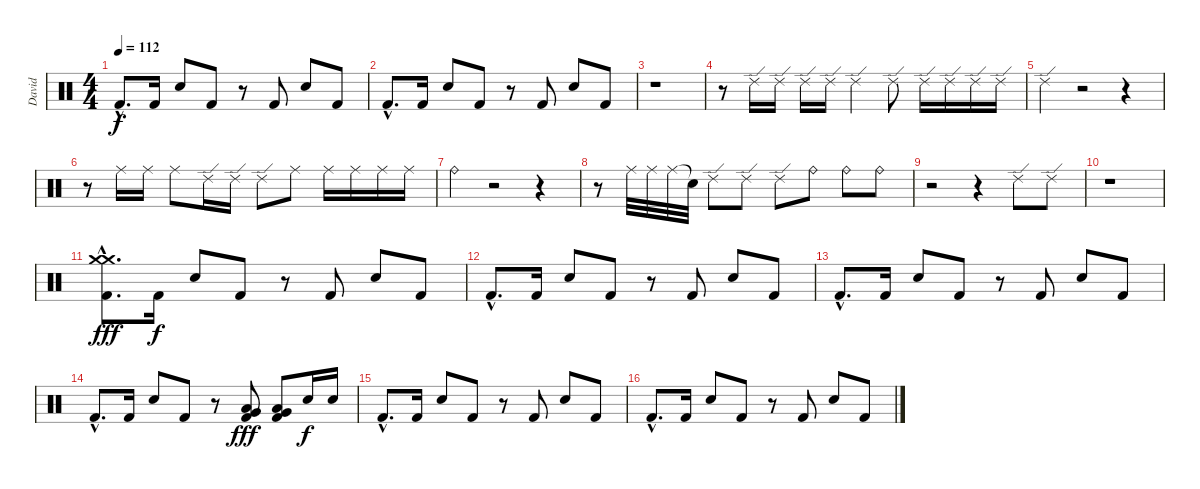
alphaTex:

\track ("David" "David") {instrument percussion}
\staff {score}
\articulation defaults
\ts (4 4)
\tempo 112
\clef neutral
\ks c "Kick (hit) 2"{hac}.8{d dy f} "Kick (hit) 2".16 "Snare (hit) 2".8 "Kick (hit) 2".8
r.8 "Kick (hit) 2".8 "Snare (hit) 2".8 "Kick (hit) 2".8 |
"Kick (hit) 2"{hac}.8{d} "Kick (hit) 2".16 "Snare (hit) 2".8 "Kick (hit) 2".8 r.8 "Kick (hit) 2".8 "Snare (hit) 2".8 "Kick (hit) 2".8 |
r.1 |
r.8 "Ride (edge) 2".16 "Ride (edge) 2".16 "Ride (edge) 2".16 "Ride (edge) 2".16 "Ride (edge) 2".4 "Ride (edge) 2".8 "Ride (edge) 2".16 "Ride (edge) 2".16 "Ride (edge) 2".16 "Ride (edge) 2".16 |
"Ride (edge) 2".4 r.2 r.4 |
r.8 "Ride (middle)".16 "Ride (middle)".16 "Ride (middle)".8 "Ride (edge) 2".16 "Ride (edge) 2".16 "Ride (edge) 2".8 "Ride (middle)".8 "Ride (middle)".16 "Ride (middle)".16 "Ride (middle)".16 "Ride (middle)".16 |
"Ride (bell)".4 r.2 r.4 |
r.8 "Ride (middle)".32 "Ride (middle)".32 "Ride (middle)".32 "Snare (hit)"{t}.32 "Ride (edge) 2".8 "Ride (edge) 2".8 "Ride (edge) 2".8 "Ride (bell)".8 "Ride (bell)".8 "Ride (bell)".8 |
r.2 r.4 "Ride (edge) 2".8 "Ride (edge) 2".8 |
r.1 |
("Crash medium (hit)"{hac} "Crash medium (hit)"{hac} "Kick (hit) 2"{hac}).8{d dy fff} "Kick (hit) 2".16{dy f} "Snare (hit) 2".8 "Kick (hit) 2".8 r.8 "Kick (hit) 2".8 "Snare (hit) 2".8 "Kick (hit) 2".8 |
"Kick (hit) 2"{hac}.8{d} "Kick (hit) 2".16 "Snare (hit) 2".8 "Kick (hit) 2".8 r.8 "Kick (hit) 2".8 "Snare (hit) 2".8 "Kick (hit) 2".8 |
"Kick (hit) 2"{hac}.8{d} "Kick (hit) 2".16 "Snare (hit) 2".8 "Kick (hit) 2".8 r.8 "Kick (hit) 2".8 "Snare (hit) 2".8 "Kick (hit) 2".8 |
"Kick (hit) 2"{hac}.8{d} "Kick (hit) 2".16 "Snare (hit) 2".8 "Kick (hit) 2".8 r.8 ("Low Floor Tom (hit)" "Very Low Tom (hit)" "Kick (hit) 2").8{dy fff} ("Low Floor Tom (hit)" "Very Low Tom (hit)" "Kick (hit) 2").8 "Snare (hit) 2".16{dy f} "Snare (hit) 2".16 |
"Kick (hit) 2"{hac}.8{d} "Kick (hit) 2".16 "Snare (hit) 2".8 "Kick (hit) 2".8 r.8 "Kick (hit) 2".8 "Snare (hit) 2".8 "Kick (hit) 2".8 |
"Kick (hit) 2"{hac}.8{d} "Kick (hit) 2".16 "Snare (hit) 2".8 "Kick (hit) 2".8 r.8 "Kick (hit) 2".8 "Snare (hit) 2".8 "Kick (hit) 2".8
